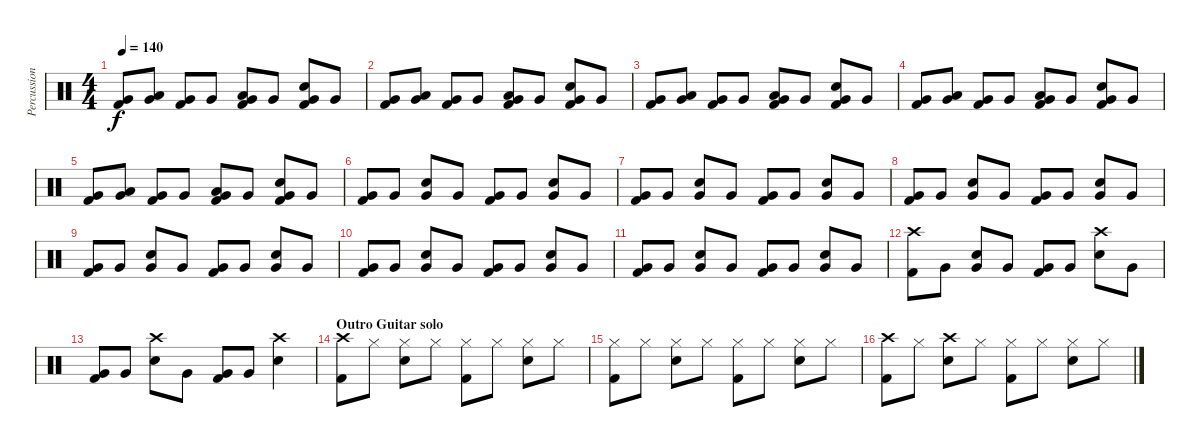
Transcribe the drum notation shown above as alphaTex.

\track ("Percussion" "Percussion") {instrument percussion}
\staff {score}
\articulation defaults
\ts (4 4)
\tempo 140
\clef neutral
\ks c
("Very Low Tom (hit)" "Kick (hit) 2").8{dy f} ("Low Tom (hit)" "Very Low Tom (hit)").8 ("Very Low Tom (hit)" "Kick (hit) 2").8 "Very Low Tom (hit)".8 ("Low Tom (hit)" "Very Low Tom (hit)" "Kick (hit) 2").8 "Very Low Tom (hit)".8 ("Very Low Tom (hit)" "Electric Snare (hit)" "Kick (hit) 2").8 "Very Low Tom (hit)".8 |
("Very Low Tom (hit)" "Kick (hit) 2").8 ("Low Tom (hit)" "Very Low Tom (hit)").8 ("Very Low Tom (hit)" "Kick (hit) 2").8 "Very Low Tom (hit)".8 ("Low Tom (hit)" "Very Low Tom (hit)" "Kick (hit) 2").8 "Very Low Tom (hit)".8 ("Very Low Tom (hit)" "Electric Snare (hit)" "Kick (hit) 2").8 "Very Low Tom (hit)".8 |
("Very Low Tom (hit)" "Kick (hit) 2").8 ("Low Tom (hit)" "Very Low Tom (hit)").8 ("Very Low Tom (hit)" "Kick (hit) 2").8 "Very Low Tom (hit)".8 ("Low Tom (hit)" "Very Low Tom (hit)" "Kick (hit) 2").8 "Very Low Tom (hit)".8 ("Very Low Tom (hit)" "Electric Snare (hit)" "Kick (hit) 2").8 "Very Low Tom (hit)".8 |
("Very Low Tom (hit)" "Kick (hit) 2").8 ("Low Tom (hit)" "Very Low Tom (hit)").8 ("Very Low Tom (hit)" "Kick (hit) 2").8 "Very Low Tom (hit)".8 ("Low Tom (hit)" "Very Low Tom (hit)" "Kick (hit) 2").8 "Very Low Tom (hit)".8 ("Very Low Tom (hit)" "Electric Snare (hit)" "Kick (hit) 2").8 "Very Low Tom (hit)".8 |
("Very Low Tom (hit)" "Kick (hit) 2").8 ("Low Tom (hit)" "Very Low Tom (hit)").8 ("Very Low Tom (hit)" "Kick (hit) 2").8 "Very Low Tom (hit)".8 ("Low Tom (hit)" "Very Low Tom (hit)" "Kick (hit) 2").8 "Very Low Tom (hit)".8 ("Very Low Tom (hit)" "Electric Snare (hit)" "Kick (hit) 2").8 "Very Low Tom (hit)".8 |
("Very Low Tom (hit)" "Kick (hit) 2").8 "Very Low Tom (hit)".8 ("Very Low Tom (hit)" "Electric Snare (hit)").8 "Very Low Tom (hit)".8 ("Very Low Tom (hit)" "Kick (hit) 2").8 "Very Low Tom (hit)".8 ("Very Low Tom (hit)" "Electric Snare (hit)").8 "Very Low Tom (hit)".8 |
("Very Low Tom (hit)" "Kick (hit) 2").8 "Very Low Tom (hit)".8 ("Very Low Tom (hit)" "Electric Snare (hit)").8 "Very Low Tom (hit)".8 ("Very Low Tom (hit)" "Kick (hit) 2").8 "Very Low Tom (hit)".8 ("Very Low Tom (hit)" "Electric Snare (hit)").8 "Very Low Tom (hit)".8 |
("Very Low Tom (hit)" "Kick (hit) 2").8 "Very Low Tom (hit)".8 ("Very Low Tom (hit)" "Electric Snare (hit)").8 "Very Low Tom (hit)".8 ("Very Low Tom (hit)" "Kick (hit) 2").8 "Very Low Tom (hit)".8 ("Very Low Tom (hit)" "Electric Snare (hit)").8 "Very Low Tom (hit)".8 |
("Very Low Tom (hit)" "Kick (hit) 2").8 "Very Low Tom (hit)".8 ("Very Low Tom (hit)" "Electric Snare (hit)").8 "Very Low Tom (hit)".8 ("Very Low Tom (hit)" "Kick (hit) 2").8 "Very Low Tom (hit)".8 ("Very Low Tom (hit)" "Electric Snare (hit)").8 "Very Low Tom (hit)".8 |
("Very Low Tom (hit)" "Kick (hit) 2").8 "Very Low Tom (hit)".8 ("Very Low Tom (hit)" "Electric Snare (hit)").8 "Very Low Tom (hit)".8 ("Very Low Tom (hit)" "Kick (hit) 2").8 "Very Low Tom (hit)".8 ("Very Low Tom (hit)" "Electric Snare (hit)").8 "Very Low Tom (hit)".8 |
("Very Low Tom (hit)" "Kick (hit) 2").8 "Very Low Tom (hit)".8 ("Very Low Tom (hit)" "Electric Snare (hit)").8 "Very Low Tom (hit)".8 ("Very Low Tom (hit)" "Kick (hit) 2").8 "Very Low Tom (hit)".8 ("Very Low Tom (hit)" "Electric Snare (hit)").8 "Very Low Tom (hit)".8 |
("Crash high (hit)" "Kick (hit) 2").8 "Very Low Tom (hit)".8 ("Very Low Tom (hit)" "Electric Snare (hit)").8 "Very Low Tom (hit)".8 ("Very Low Tom (hit)" "Kick (hit) 2").8 "Very Low Tom (hit)".8 ("Crash high (hit)" "Electric Snare (hit)").8 "Very Low Tom (hit)".8 |
("Very Low Tom (hit)" "Kick (hit) 2").8 "Very Low Tom (hit)".8 ("Crash high (hit)" "Electric Snare (hit)").8 "Very Low Tom (hit)".8 ("Very Low Tom (hit)" "Kick (hit) 2").8 "Very Low Tom (hit)".8 ("Crash high (hit)" "Electric Snare (hit)").4 |
\section ("" "Outro Guitar solo")
("Crash high (hit)" "Kick (hit) 2").8 "Hi-Hat (closed)".8 ("Hi-Hat (closed)" "Electric Snare (hit)").8 "Hi-Hat (closed)".8 ("Hi-Hat (closed)" "Kick (hit) 2").8 "Hi-Hat (closed)".8 ("Hi-Hat (closed)" "Electric Snare (hit)").8 "Hi-Hat (closed)".8 |
("Hi-Hat (closed)" "Kick (hit) 2").8 "Hi-Hat (closed)".8 ("Hi-Hat (closed)" "Electric Snare (hit)").8 "Hi-Hat (closed)".8 ("Hi-Hat (closed)" "Kick (hit) 2").8 "Hi-Hat (closed)".8 ("Hi-Hat (closed)" "Electric Snare (hit)").8 "Hi-Hat (closed)".8 |
("Crash high (hit)" "Kick (hit) 2").8 "Hi-Hat (closed)".8 ("Crash high (hit)" "Electric Snare (hit)").8 "Hi-Hat (closed)".8 ("Hi-Hat (closed)" "Kick (hit) 2").8 "Hi-Hat (closed)".8 ("Hi-Hat (closed)" "Electric Snare (hit)").8 "Hi-Hat (closed)".8
